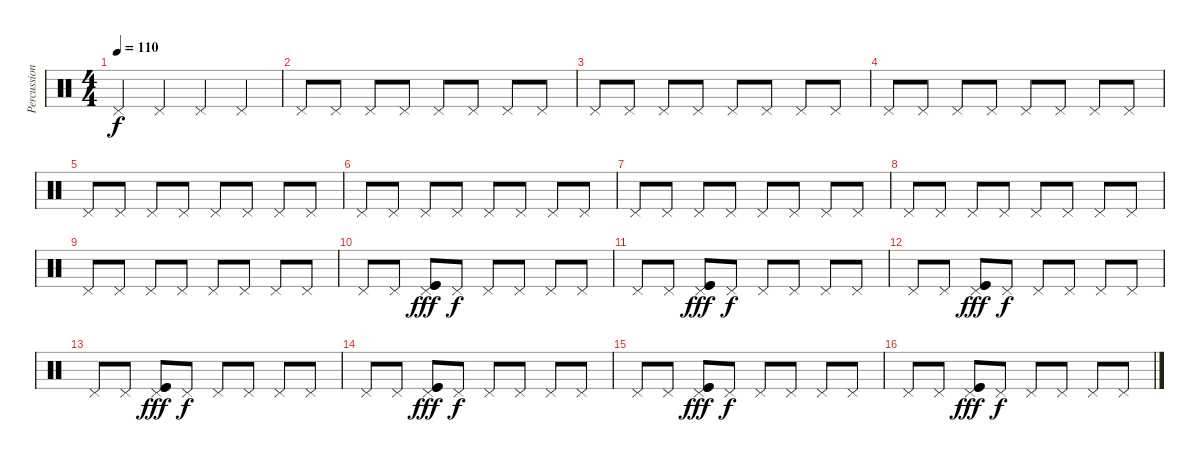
\track ("Percussion" "Percussion") {instrument percussion}
\staff {score}
\articulation defaults
\ts (4 4)
\tempo 110
\clef neutral
\ks c "Pedal Hi-Hat (hit)".4{dy f} "Pedal Hi-Hat (hit)".4 "Pedal Hi-Hat (hit)".4 "Pedal Hi-Hat (hit)".4
|
"Pedal Hi-Hat (hit)".8 "Pedal Hi-Hat (hit)".8 "Pedal Hi-Hat (hit)".8 "Pedal Hi-Hat (hit)".8 "Pedal Hi-Hat (hit)".8 "Pedal Hi-Hat (hit)".8 "Pedal Hi-Hat (hit)".8 "Pedal Hi-Hat (hit)".8 |
"Pedal Hi-Hat (hit)".8 "Pedal Hi-Hat (hit)".8 "Pedal Hi-Hat (hit)".8 "Pedal Hi-Hat (hit)".8 "Pedal Hi-Hat (hit)".8 "Pedal Hi-Hat (hit)".8 "Pedal Hi-Hat (hit)".8 "Pedal Hi-Hat (hit)".8 |
"Pedal Hi-Hat (hit)".8 "Pedal Hi-Hat (hit)".8 "Pedal Hi-Hat (hit)".8 "Pedal Hi-Hat (hit)".8 "Pedal Hi-Hat (hit)".8 "Pedal Hi-Hat (hit)".8 "Pedal Hi-Hat (hit)".8 "Pedal Hi-Hat (hit)".8 |
"Pedal Hi-Hat (hit)".8 "Pedal Hi-Hat (hit)".8 "Pedal Hi-Hat (hit)".8 "Pedal Hi-Hat (hit)".8 "Pedal Hi-Hat (hit)".8 "Pedal Hi-Hat (hit)".8 "Pedal Hi-Hat (hit)".8 "Pedal Hi-Hat (hit)".8 |
"Pedal Hi-Hat (hit)".8 "Pedal Hi-Hat (hit)".8 "Pedal Hi-Hat (hit)".8 "Pedal Hi-Hat (hit)".8 "Pedal Hi-Hat (hit)".8 "Pedal Hi-Hat (hit)".8 "Pedal Hi-Hat (hit)".8 "Pedal Hi-Hat (hit)".8 |
"Pedal Hi-Hat (hit)".8 "Pedal Hi-Hat (hit)".8 "Pedal Hi-Hat (hit)".8 "Pedal Hi-Hat (hit)".8 "Pedal Hi-Hat (hit)".8 "Pedal Hi-Hat (hit)".8 "Pedal Hi-Hat (hit)".8 "Pedal Hi-Hat (hit)".8 |
"Pedal Hi-Hat (hit)".8 "Pedal Hi-Hat (hit)".8 "Pedal Hi-Hat (hit)".8 "Pedal Hi-Hat (hit)".8 "Pedal Hi-Hat (hit)".8 "Pedal Hi-Hat (hit)".8 "Pedal Hi-Hat (hit)".8 "Pedal Hi-Hat (hit)".8 |
"Pedal Hi-Hat (hit)".8 "Pedal Hi-Hat (hit)".8 "Pedal Hi-Hat (hit)".8 "Pedal Hi-Hat (hit)".8 "Pedal Hi-Hat (hit)".8 "Pedal Hi-Hat (hit)".8 "Pedal Hi-Hat (hit)".8 "Pedal Hi-Hat (hit)".8 |
"Pedal Hi-Hat (hit)".8 "Pedal Hi-Hat (hit)".8 ("Pedal Hi-Hat (hit)" "Kick (hit)" "Kick (hit)").8{dy fff} "Pedal Hi-Hat (hit)".8{dy f} "Pedal Hi-Hat (hit)".8 "Pedal Hi-Hat (hit)".8 "Pedal Hi-Hat (hit)".8 "Pedal Hi-Hat (hit)".8 |
"Pedal Hi-Hat (hit)".8 "Pedal Hi-Hat (hit)".8 ("Pedal Hi-Hat (hit)" "Kick (hit)" "Kick (hit)").8{dy fff} "Pedal Hi-Hat (hit)".8{dy f} "Pedal Hi-Hat (hit)".8 "Pedal Hi-Hat (hit)".8 "Pedal Hi-Hat (hit)".8 "Pedal Hi-Hat (hit)".8 |
"Pedal Hi-Hat (hit)".8 "Pedal Hi-Hat (hit)".8 ("Pedal Hi-Hat (hit)" "Kick (hit)" "Kick (hit)").8{dy fff} "Pedal Hi-Hat (hit)".8{dy f} "Pedal Hi-Hat (hit)".8 "Pedal Hi-Hat (hit)".8 "Pedal Hi-Hat (hit)".8 "Pedal Hi-Hat (hit)".8 |
"Pedal Hi-Hat (hit)".8 "Pedal Hi-Hat (hit)".8 ("Pedal Hi-Hat (hit)" "Kick (hit)" "Kick (hit)").8{dy fff} "Pedal Hi-Hat (hit)".8{dy f} "Pedal Hi-Hat (hit)".8 "Pedal Hi-Hat (hit)".8 "Pedal Hi-Hat (hit)".8 "Pedal Hi-Hat (hit)".8 |
"Pedal Hi-Hat (hit)".8 "Pedal Hi-Hat (hit)".8 ("Pedal Hi-Hat (hit)" "Kick (hit)" "Kick (hit)").8{dy fff} "Pedal Hi-Hat (hit)".8{dy f} "Pedal Hi-Hat (hit)".8 "Pedal Hi-Hat (hit)".8 "Pedal Hi-Hat (hit)".8 "Pedal Hi-Hat (hit)".8 |
"Pedal Hi-Hat (hit)".8 "Pedal Hi-Hat (hit)".8 ("Pedal Hi-Hat (hit)" "Kick (hit)" "Kick (hit)").8{dy fff} "Pedal Hi-Hat (hit)".8{dy f} "Pedal Hi-Hat (hit)".8 "Pedal Hi-Hat (hit)".8 "Pedal Hi-Hat (hit)".8 "Pedal Hi-Hat (hit)".8 |
"Pedal Hi-Hat (hit)".8 "Pedal Hi-Hat (hit)".8 ("Pedal Hi-Hat (hit)" "Kick (hit)" "Kick (hit)").8{dy fff} "Pedal Hi-Hat (hit)".8{dy f} "Pedal Hi-Hat (hit)".8 "Pedal Hi-Hat (hit)".8 "Pedal Hi-Hat (hit)".8 "Pedal Hi-Hat (hit)".8
